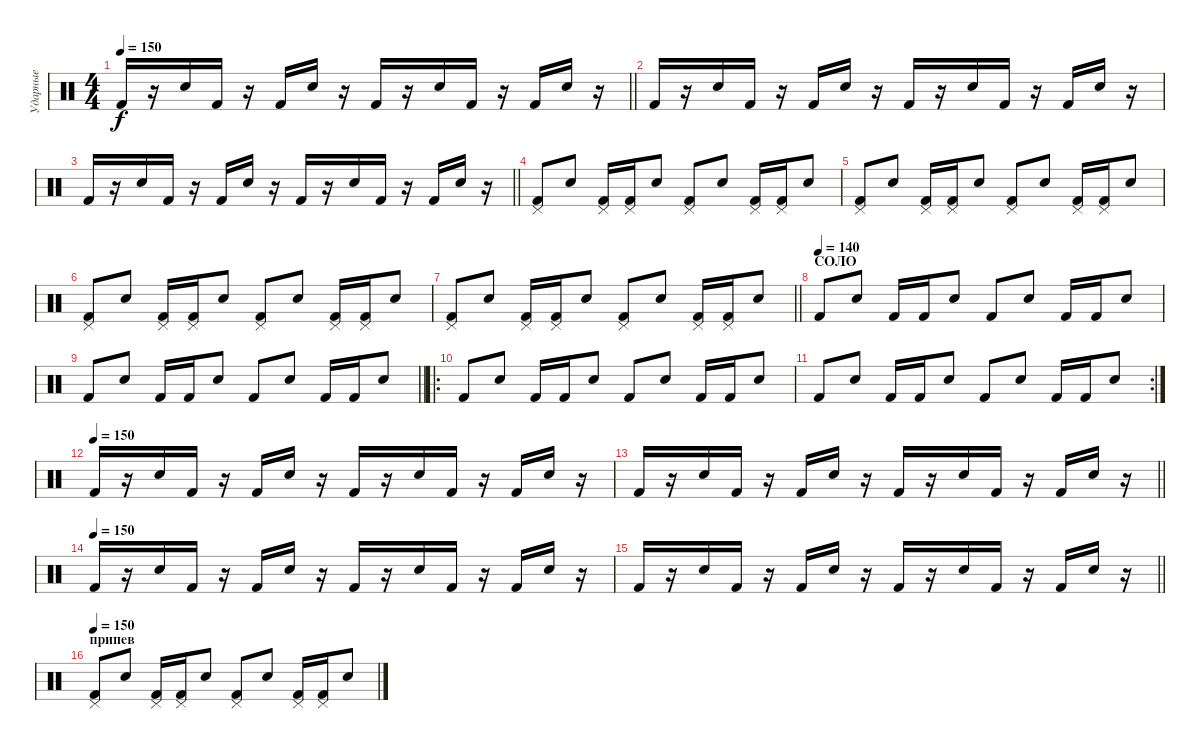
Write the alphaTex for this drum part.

\track ("Ударные" "Ударные") {instrument percussion}
\staff {score}
\articulation defaults
\ts (4 4)
\tempo 150
\clef neutral
\barLineRight lightlight
\ks c "Kick (hit) 2".16{dy f}
r.16 "Electric Snare (hit)".16 "Kick (hit) 2".16 r.16 "Kick (hit) 2".16 "Electric Snare (hit)".16 r.16 "Kick (hit) 2".16 r.16 "Electric Snare (hit)".16 "Kick (hit) 2".16 r.16 "Kick (hit) 2".16 "Electric Snare (hit)".16 r.16 |
"Kick (hit) 2".16 r.16 "Electric Snare (hit)".16 "Kick (hit) 2".16 r.16 "Kick (hit) 2".16 "Electric Snare (hit)".16 r.16 "Kick (hit) 2".16 r.16 "Electric Snare (hit)".16 "Kick (hit) 2".16 r.16 "Kick (hit) 2".16 "Electric Snare (hit)".16 r.16 |
\barLineRight lightlight "Kick (hit) 2".16
r.16 "Electric Snare (hit)".16 "Kick (hit) 2".16 r.16 "Kick (hit) 2".16 "Electric Snare (hit)".16 r.16 "Kick (hit) 2".16 r.16 "Electric Snare (hit)".16 "Kick (hit) 2".16 r.16 "Kick (hit) 2".16 "Electric Snare (hit)".16 r.16 |
("Kick (hit) 2" "Pedal Hi-Hat (hit)").8 "Electric Snare (hit)".8 ("Kick (hit) 2" "Pedal Hi-Hat (hit)").16 ("Kick (hit) 2" "Pedal Hi-Hat (hit)").16 "Electric Snare (hit)".8 ("Kick (hit) 2" "Pedal Hi-Hat (hit)").8 "Electric Snare (hit)".8 ("Kick (hit) 2" "Pedal Hi-Hat (hit)").16 ("Kick (hit) 2" "Pedal Hi-Hat (hit)").16 "Electric Snare (hit)".8 |
("Kick (hit) 2" "Pedal Hi-Hat (hit)").8 "Electric Snare (hit)".8 ("Kick (hit) 2" "Pedal Hi-Hat (hit)").16 ("Kick (hit) 2" "Pedal Hi-Hat (hit)").16 "Electric Snare (hit)".8 ("Kick (hit) 2" "Pedal Hi-Hat (hit)").8 "Electric Snare (hit)".8 ("Kick (hit) 2" "Pedal Hi-Hat (hit)").16 ("Kick (hit) 2" "Pedal Hi-Hat (hit)").16 "Electric Snare (hit)".8 |
("Kick (hit) 2" "Pedal Hi-Hat (hit)").8 "Electric Snare (hit)".8 ("Kick (hit) 2" "Pedal Hi-Hat (hit)").16 ("Kick (hit) 2" "Pedal Hi-Hat (hit)").16 "Electric Snare (hit)".8 ("Kick (hit) 2" "Pedal Hi-Hat (hit)").8 "Electric Snare (hit)".8 ("Kick (hit) 2" "Pedal Hi-Hat (hit)").16 ("Kick (hit) 2" "Pedal Hi-Hat (hit)").16 "Electric Snare (hit)".8 |
\barLineRight lightlight
("Kick (hit) 2" "Pedal Hi-Hat (hit)").8 "Electric Snare (hit)".8 ("Kick (hit) 2" "Pedal Hi-Hat (hit)").16 ("Kick (hit) 2" "Pedal Hi-Hat (hit)").16 "Electric Snare (hit)".8 ("Kick (hit) 2" "Pedal Hi-Hat (hit)").8 "Electric Snare (hit)".8 ("Kick (hit) 2" "Pedal Hi-Hat (hit)").16 ("Kick (hit) 2" "Pedal Hi-Hat (hit)").16 "Electric Snare (hit)".8 |
\section ("" "СОЛО")
\tempo (140)
"Kick (hit) 2".8 "Electric Snare (hit)".8 "Kick (hit) 2".16 "Kick (hit) 2".16 "Electric Snare (hit)".8 "Kick (hit) 2".8 "Electric Snare (hit)".8 "Kick (hit) 2".16 "Kick (hit) 2".16 "Electric Snare (hit)".8 |
\barLineRight lightlight "Kick (hit) 2".8 "Electric Snare (hit)".8 "Kick (hit) 2".16 "Kick (hit) 2".16 "Electric Snare (hit)".8 "Kick (hit) 2".8 "Electric Snare (hit)".8 "Kick (hit) 2".16 "Kick (hit) 2".16 "Electric Snare (hit)".8
|
\ro "Kick (hit) 2".8 "Electric Snare (hit)".8 "Kick (hit) 2".16 "Kick (hit) 2".16 "Electric Snare (hit)".8 "Kick (hit) 2".8 "Electric Snare (hit)".8 "Kick (hit) 2".16 "Kick (hit) 2".16 "Electric Snare (hit)".8
|
\rc 2 "Kick (hit) 2".8 "Electric Snare (hit)".8 "Kick (hit) 2".16 "Kick (hit) 2".16 "Electric Snare (hit)".8 "Kick (hit) 2".8 "Electric Snare (hit)".8 "Kick (hit) 2".16 "Kick (hit) 2".16 "Electric Snare (hit)".8
|
\tempo (150)
"Kick (hit) 2".16 r.16 "Electric Snare (hit)".16 "Kick (hit) 2".16 r.16 "Kick (hit) 2".16 "Electric Snare (hit)".16 r.16 "Kick (hit) 2".16 r.16 "Electric Snare (hit)".16 "Kick (hit) 2".16 r.16 "Kick (hit) 2".16 "Electric Snare (hit)".16 r.16 |
\barLineRight lightlight "Kick (hit) 2".16
r.16 "Electric Snare (hit)".16 "Kick (hit) 2".16 r.16 "Kick (hit) 2".16 "Electric Snare (hit)".16 r.16 "Kick (hit) 2".16 r.16 "Electric Snare (hit)".16 "Kick (hit) 2".16 r.16 "Kick (hit) 2".16 "Electric Snare (hit)".16 r.16 |
\tempo (150)
"Kick (hit) 2".16 r.16 "Electric Snare (hit)".16 "Kick (hit) 2".16 r.16 "Kick (hit) 2".16 "Electric Snare (hit)".16 r.16 "Kick (hit) 2".16 r.16 "Electric Snare (hit)".16 "Kick (hit) 2".16 r.16 "Kick (hit) 2".16 "Electric Snare (hit)".16 r.16 |
\barLineRight lightlight "Kick (hit) 2".16
r.16 "Electric Snare (hit)".16 "Kick (hit) 2".16 r.16 "Kick (hit) 2".16 "Electric Snare (hit)".16 r.16 "Kick (hit) 2".16 r.16 "Electric Snare (hit)".16 "Kick (hit) 2".16 r.16 "Kick (hit) 2".16 "Electric Snare (hit)".16 r.16 |
\section ("" "припев")
\tempo 150
("Kick (hit) 2" "Pedal Hi-Hat (hit)").8 "Electric Snare (hit)".8 ("Kick (hit) 2" "Pedal Hi-Hat (hit)").16 ("Kick (hit) 2" "Pedal Hi-Hat (hit)").16 "Electric Snare (hit)".8 ("Kick (hit) 2" "Pedal Hi-Hat (hit)").8 "Electric Snare (hit)".8 ("Kick (hit) 2" "Pedal Hi-Hat (hit)").16 ("Kick (hit) 2" "Pedal Hi-Hat (hit)").16 "Electric Snare (hit)".8
